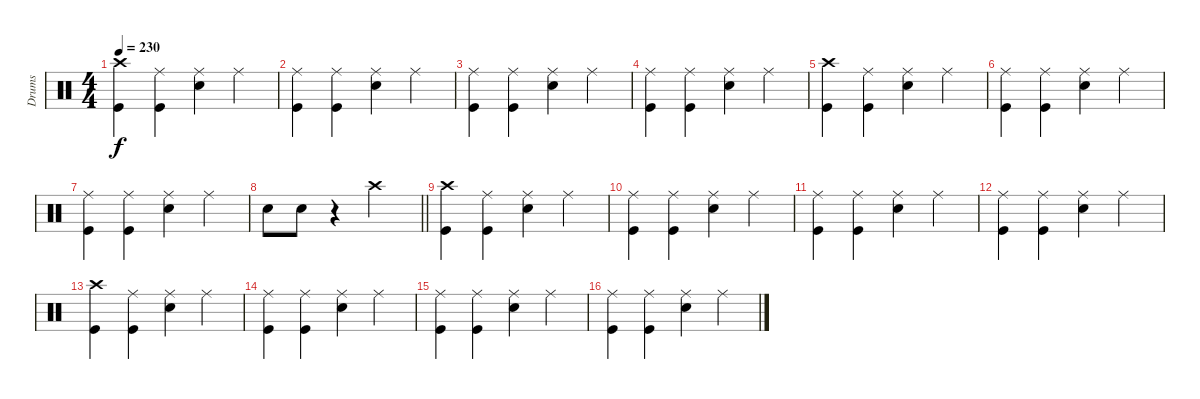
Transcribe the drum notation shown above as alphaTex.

\track ("Drums" "Drums") {instrument percussion}
\staff {score}
\articulation defaults
\ts (4 4)
\tempo 230
\clef neutral
\ks c
("Crash high (hit)" "Kick (hit)").4{dy f} ("Ride (middle)" "Kick (hit)").4 ("Ride (middle)" "Snare (hit) 2").4 "Ride (middle)".4 |
("Ride (middle)" "Kick (hit)").4 ("Ride (middle)" "Kick (hit)").4 ("Ride (middle)" "Snare (hit) 2").4 "Ride (middle)".4 |
("Ride (middle)" "Kick (hit)").4 ("Ride (middle)" "Kick (hit)").4 ("Ride (middle)" "Snare (hit) 2").4 "Ride (middle)".4 |
("Ride (middle)" "Kick (hit)").4 ("Ride (middle)" "Kick (hit)").4 ("Ride (middle)" "Snare (hit) 2").4 "Ride (middle)".4 |
("Crash high (hit)" "Kick (hit)").4 ("Ride (middle)" "Kick (hit)").4 ("Ride (middle)" "Snare (hit) 2").4 "Ride (middle)".4 |
("Ride (middle)" "Kick (hit)").4 ("Ride (middle)" "Kick (hit)").4 ("Ride (middle)" "Snare (hit) 2").4 "Ride (middle)".4 |
("Ride (middle)" "Kick (hit)").4 ("Ride (middle)" "Kick (hit)").4 ("Ride (middle)" "Snare (hit) 2").4 "Ride (middle)".4 |
\barLineRight lightlight "Snare (hit) 2".8 "Snare (hit) 2".8
r.4 "Crash high (hit)".2 |
("Crash high (hit)" "Kick (hit)").4 ("Ride (middle)" "Kick (hit)").4 ("Ride (middle)" "Snare (hit) 2").4 "Ride (middle)".4 |
("Ride (middle)" "Kick (hit)").4 ("Ride (middle)" "Kick (hit)").4 ("Ride (middle)" "Snare (hit) 2").4 "Ride (middle)".4 |
("Ride (middle)" "Kick (hit)").4 ("Ride (middle)" "Kick (hit)").4 ("Ride (middle)" "Snare (hit) 2").4 "Ride (middle)".4 |
("Ride (middle)" "Kick (hit)").4 ("Ride (middle)" "Kick (hit)").4 ("Ride (middle)" "Snare (hit) 2").4 "Ride (middle)".4 |
("Crash high (hit)" "Kick (hit)").4 ("Ride (middle)" "Kick (hit)").4 ("Ride (middle)" "Snare (hit) 2").4 "Ride (middle)".4 |
("Ride (middle)" "Kick (hit)").4 ("Ride (middle)" "Kick (hit)").4 ("Ride (middle)" "Snare (hit) 2").4 "Ride (middle)".4 |
("Ride (middle)" "Kick (hit)").4 ("Ride (middle)" "Kick (hit)").4 ("Ride (middle)" "Snare (hit) 2").4 "Ride (middle)".4 |
("Ride (middle)" "Kick (hit)").4 ("Ride (middle)" "Kick (hit)").4 ("Ride (middle)" "Snare (hit) 2").4 "Ride (middle)".4
